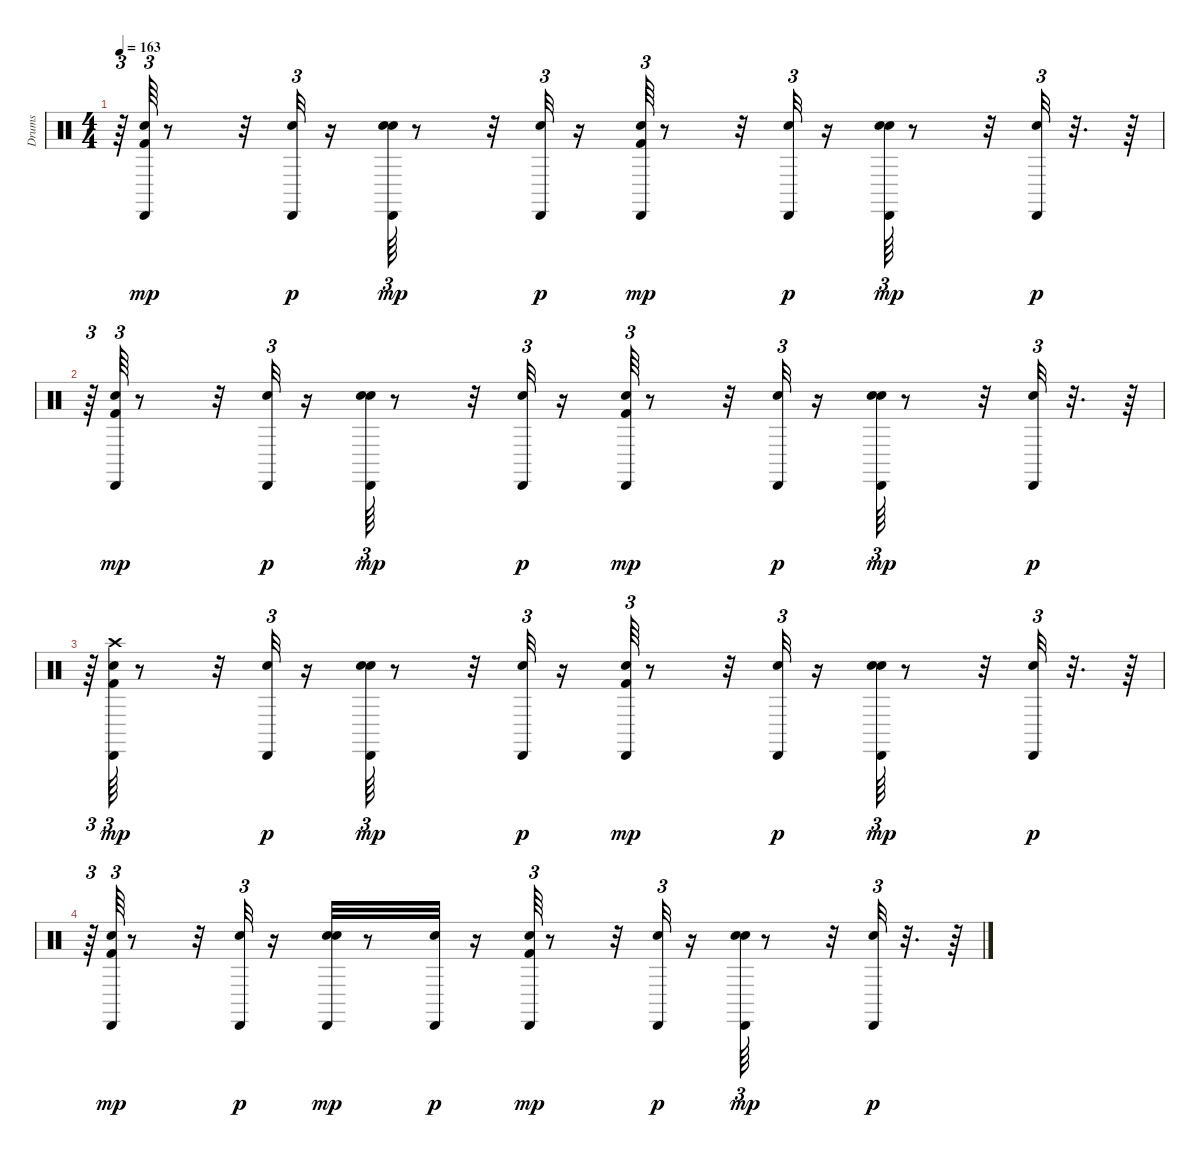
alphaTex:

\track ("Drums               " "Drums     ") {instrument percussion}
\staff {score}
\articulation defaults
\ts (4 4)
\tempo 163
\clef neutral
\ks c
r.64{tu (3 2) dy p} ("Kick (hit) 2" "Snare (hit) 2" "Cabasa (hit)").64{tu (3 2) dy mp} r.8 r.32 ("Snare (hit) 2" "Cabasa (hit)").32{tu (3 2) dy p} r.16 ("Snare (hit) 2" "Hand Clap (hit)" "Cabasa (hit)").64{tu (3 2) dy mp} r.8 r.32 ("Snare (hit) 2" "Cabasa (hit)").32{tu (3 2) dy p} r.16 ("Kick (hit) 2" "Snare (hit) 2" "Cabasa (hit)").64{tu (3 2) dy mp} r.8 r.32 ("Snare (hit) 2" "Cabasa (hit)").32{tu (3 2) dy p} r.16 ("Snare (hit) 2" "Hand Clap (hit)" "Cabasa (hit)").64{tu (3 2) dy mp} r.8 r.32 ("Snare (hit) 2" "Cabasa (hit)").32{tu (3 2) dy p} r.32{d} r.64 |
r.64{tu (3 2)} ("Kick (hit) 2" "Snare (hit) 2" "Cabasa (hit)").64{tu (3 2) dy mp} r.8 r.32 ("Snare (hit) 2" "Cabasa (hit)").32{tu (3 2) dy p} r.16 ("Snare (hit) 2" "Hand Clap (hit)" "Cabasa (hit)").64{tu (3 2) dy mp} r.8 r.32 ("Snare (hit) 2" "Cabasa (hit)").32{tu (3 2) dy p} r.16 ("Kick (hit) 2" "Snare (hit) 2" "Cabasa (hit)").64{tu (3 2) dy mp} r.8 r.32 ("Snare (hit) 2" "Cabasa (hit)").32{tu (3 2) dy p} r.16 ("Snare (hit) 2" "Hand Clap (hit)" "Cabasa (hit)").64{tu (3 2) dy mp} r.8 r.32 ("Snare (hit) 2" "Cabasa (hit)").32{tu (3 2) dy p} r.32{d} r.64 |
r.64{tu (3 2)} ("Kick (hit) 2" "Snare (hit) 2" "Crash high (hit)" "Cabasa (hit)").64{tu (3 2) dy mp} r.8 r.32 ("Snare (hit) 2" "Cabasa (hit)").32{tu (3 2) dy p} r.16 ("Snare (hit) 2" "Hand Clap (hit)" "Cabasa (hit)").64{tu (3 2) dy mp} r.8 r.32 ("Snare (hit) 2" "Cabasa (hit)").32{tu (3 2) dy p} r.16 ("Kick (hit) 2" "Snare (hit) 2" "Cabasa (hit)").64{tu (3 2) dy mp} r.8 r.32 ("Snare (hit) 2" "Cabasa (hit)").32{tu (3 2) dy p} r.16 ("Snare (hit) 2" "Hand Clap (hit)" "Cabasa (hit)").64{tu (3 2) dy mp} r.8 r.32 ("Snare (hit) 2" "Cabasa (hit)").32{tu (3 2) dy p} r.32{d} r.64 |
r.64{tu (3 2)} ("Kick (hit) 2" "Snare (hit) 2" "Cabasa (hit)").64{tu (3 2) dy mp} r.8 r.32 ("Snare (hit) 2" "Cabasa (hit)").32{tu (3 2) dy p} r.16 ("Snare (hit) 2" "Hand Clap (hit)" "Cabasa (hit)").32{dy mp} r.8 ("Snare (hit) 2" "Cabasa (hit)").32{dy p} r.16 ("Kick (hit) 2" "Snare (hit) 2" "Cabasa (hit)").64{tu (3 2) dy mp} r.8 r.32 ("Snare (hit) 2" "Cabasa (hit)").32{tu (3 2) dy p} r.16 ("Snare (hit) 2" "Hand Clap (hit)" "Cabasa (hit)").64{tu (3 2) dy mp} r.8 r.32 ("Snare (hit) 2" "Cabasa (hit)").32{tu (3 2) dy p} r.32{d} r.64
